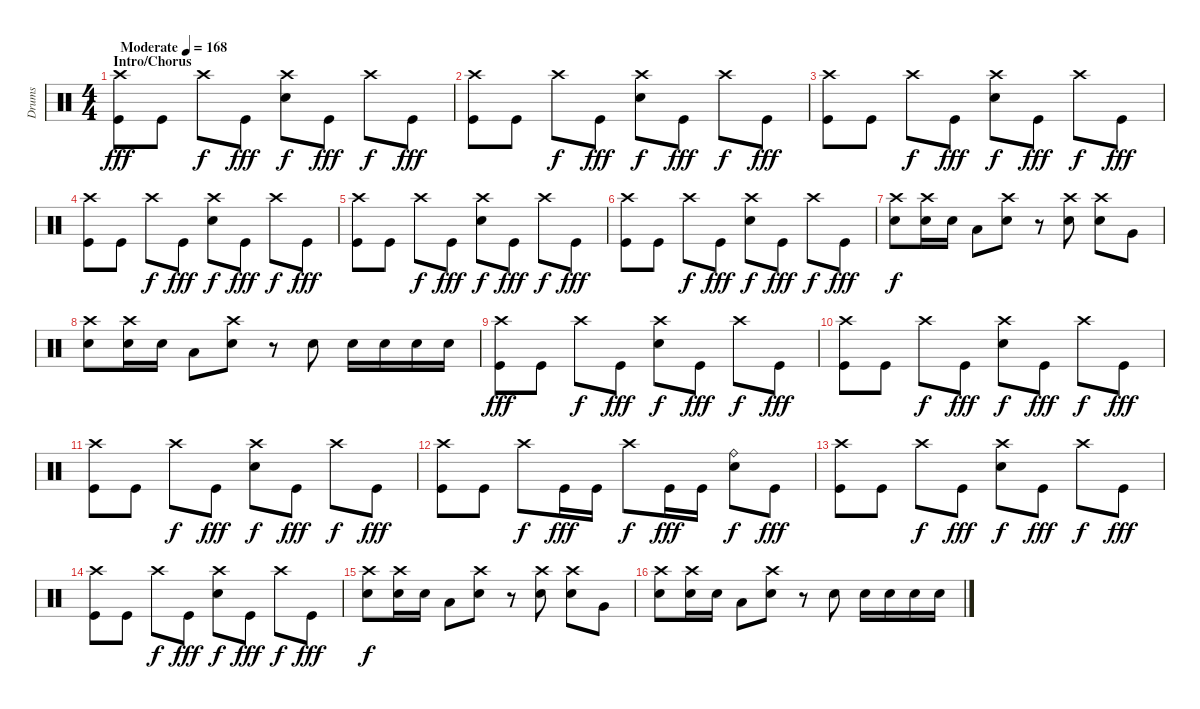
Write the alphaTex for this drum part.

\track ("Drums" "Drums") {instrument percussion}
\staff {score}
\articulation defaults
\ts (4 4)
\section ("" "Intro/Chorus")
\tempo (168 "Moderate")
\clef neutral
\ks c
("Crash high (hit)" "Kick (hit)").8{dy fff} "Kick (hit)".8 "Crash high (hit)".8{dy f} "Kick (hit)".8{dy fff} ("Crash high (hit)" "Snare (hit) 2").8{dy f} "Kick (hit)".8{dy fff} "Crash high (hit)".8{dy f} "Kick (hit)".8{dy fff} |
("Crash high (hit)" "Kick (hit)").8 "Kick (hit)".8 "Crash high (hit)".8{dy f} "Kick (hit)".8{dy fff} ("Crash high (hit)" "Snare (hit) 2").8{dy f} "Kick (hit)".8{dy fff} "Crash high (hit)".8{dy f} "Kick (hit)".8{dy fff} |
("Crash high (hit)" "Kick (hit)").8 "Kick (hit)".8 "Crash high (hit)".8{dy f} "Kick (hit)".8{dy fff} ("Crash high (hit)" "Snare (hit) 2").8{dy f} "Kick (hit)".8{dy fff} "Crash high (hit)".8{dy f} "Kick (hit)".8{dy fff} |
("Crash high (hit)" "Kick (hit)").8 "Kick (hit)".8 "Crash high (hit)".8{dy f} "Kick (hit)".8{dy fff} ("Crash high (hit)" "Snare (hit) 2").8{dy f} "Kick (hit)".8{dy fff} "Crash high (hit)".8{dy f} "Kick (hit)".8{dy fff} |
("Crash high (hit)" "Kick (hit)").8 "Kick (hit)".8 "Crash high (hit)".8{dy f} "Kick (hit)".8{dy fff} ("Crash high (hit)" "Snare (hit) 2").8{dy f} "Kick (hit)".8{dy fff} "Crash high (hit)".8{dy f} "Kick (hit)".8{dy fff} |
("Crash high (hit)" "Kick (hit)").8 "Kick (hit)".8 "Crash high (hit)".8{dy f} "Kick (hit)".8{dy fff} ("Crash high (hit)" "Snare (hit) 2").8{dy f} "Kick (hit)".8{dy fff} "Crash high (hit)".8{dy f} "Kick (hit)".8{dy fff} |
("Crash high (hit)" "Snare (hit) 2").8{dy f} ("Crash high (hit)" "Snare (hit) 2").16 "Snare (hit) 2".16 "Low Tom (hit)".8 ("Crash high (hit)" "Snare (hit) 2").8 r.8 ("Crash high (hit)" "Snare (hit) 2").8 ("Crash high (hit)" "Snare (hit) 2").8 "Very Low Tom (hit)".8 |
("Crash high (hit)" "Snare (hit) 2").8 ("Crash high (hit)" "Snare (hit) 2").16 "Snare (hit) 2".16 "Low Tom (hit)".8 ("Crash high (hit)" "Snare (hit) 2").8 r.8 "Snare (hit) 2".8 "Snare (hit) 2".16 "Snare (hit) 2".16 "Snare (hit) 2".16 "Snare (hit) 2".16 |
("Crash high (hit)" "Kick (hit)").8{dy fff} "Kick (hit)".8 "Crash high (hit)".8{dy f} "Kick (hit)".8{dy fff} ("Crash high (hit)" "Snare (hit) 2").8{dy f} "Kick (hit)".8{dy fff} "Crash high (hit)".8{dy f} "Kick (hit)".8{dy fff} |
("Crash high (hit)" "Kick (hit)").8 "Kick (hit)".8 "Crash high (hit)".8{dy f} "Kick (hit)".8{dy fff} ("Crash high (hit)" "Snare (hit) 2").8{dy f} "Kick (hit)".8{dy fff} "Crash high (hit)".8{dy f} "Kick (hit)".8{dy fff} |
("Crash high (hit)" "Kick (hit)").8 "Kick (hit)".8 "Crash high (hit)".8{dy f} "Kick (hit)".8{dy fff} ("Crash high (hit)" "Snare (hit) 2").8{dy f} "Kick (hit)".8{dy fff} "Crash high (hit)".8{dy f} "Kick (hit)".8{dy fff} |
("Crash high (hit)" "Kick (hit)").8 "Kick (hit)".8 "Crash high (hit)".8{dy f} "Kick (hit)".16{dy fff} "Kick (hit)".16 "Crash high (hit)".8{dy f} "Kick (hit)".16{dy fff} "Kick (hit)".16 ("Ride (bell)" "Snare (hit) 2").8{dy f} "Kick (hit)".8{dy fff} |
("Crash high (hit)" "Kick (hit)").8 "Kick (hit)".8 "Crash high (hit)".8{dy f} "Kick (hit)".8{dy fff} ("Crash high (hit)" "Snare (hit) 2").8{dy f} "Kick (hit)".8{dy fff} "Crash high (hit)".8{dy f} "Kick (hit)".8{dy fff} |
("Crash high (hit)" "Kick (hit)").8 "Kick (hit)".8 "Crash high (hit)".8{dy f} "Kick (hit)".8{dy fff} ("Crash high (hit)" "Snare (hit) 2").8{dy f} "Kick (hit)".8{dy fff} "Crash high (hit)".8{dy f} "Kick (hit)".8{dy fff} |
("Crash high (hit)" "Snare (hit) 2").8{dy f} ("Crash high (hit)" "Snare (hit) 2").16 "Snare (hit) 2".16 "Low Tom (hit)".8 ("Crash high (hit)" "Snare (hit) 2").8 r.8 ("Crash high (hit)" "Snare (hit) 2").8 ("Crash high (hit)" "Snare (hit) 2").8 "Very Low Tom (hit)".8 |
("Crash high (hit)" "Snare (hit) 2").8 ("Crash high (hit)" "Snare (hit) 2").16 "Snare (hit) 2".16 "Low Tom (hit)".8 ("Crash high (hit)" "Snare (hit) 2").8 r.8 "Snare (hit) 2".8 "Snare (hit) 2".16 "Snare (hit) 2".16 "Snare (hit) 2".16 "Snare (hit) 2".16
